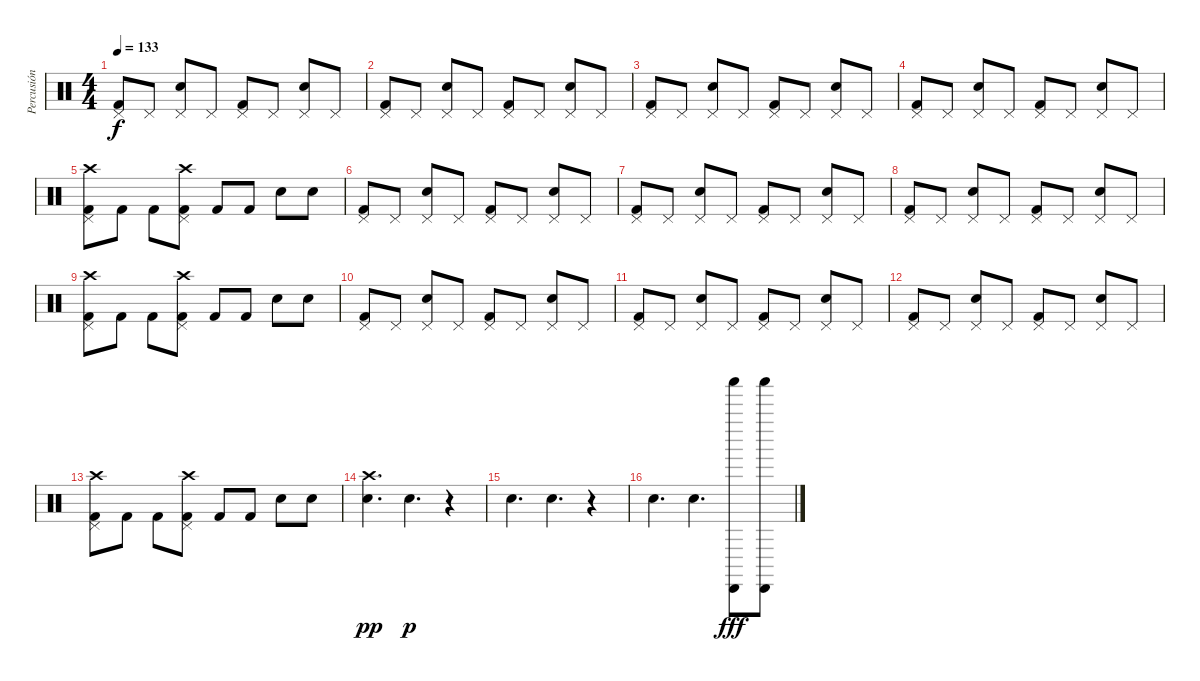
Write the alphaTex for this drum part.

\track ("Percusión" "Percusión") {instrument percussion}
\staff {score}
\articulation defaults
\ts (4 4)
\tempo 133
\clef neutral
\ks c
("Pedal Hi-Hat (hit)" "Kick (hit) 2").8{dy f} "Pedal Hi-Hat (hit)".8 ("Electric Snare (hit)" "Pedal Hi-Hat (hit)").8 "Pedal Hi-Hat (hit)".8 ("Pedal Hi-Hat (hit)" "Kick (hit) 2").8 "Pedal Hi-Hat (hit)".8 ("Electric Snare (hit)" "Pedal Hi-Hat (hit)").8 "Pedal Hi-Hat (hit)".8 |
("Pedal Hi-Hat (hit)" "Kick (hit) 2").8 "Pedal Hi-Hat (hit)".8 ("Electric Snare (hit)" "Pedal Hi-Hat (hit)").8 "Pedal Hi-Hat (hit)".8 ("Pedal Hi-Hat (hit)" "Kick (hit) 2").8 "Pedal Hi-Hat (hit)".8 ("Electric Snare (hit)" "Pedal Hi-Hat (hit)").8 "Pedal Hi-Hat (hit)".8 |
("Pedal Hi-Hat (hit)" "Kick (hit) 2").8 "Pedal Hi-Hat (hit)".8 ("Electric Snare (hit)" "Pedal Hi-Hat (hit)").8 "Pedal Hi-Hat (hit)".8 ("Pedal Hi-Hat (hit)" "Kick (hit) 2").8 "Pedal Hi-Hat (hit)".8 ("Electric Snare (hit)" "Pedal Hi-Hat (hit)").8 "Pedal Hi-Hat (hit)".8 |
("Pedal Hi-Hat (hit)" "Kick (hit) 2").8 "Pedal Hi-Hat (hit)".8 ("Electric Snare (hit)" "Pedal Hi-Hat (hit)").8 "Pedal Hi-Hat (hit)".8 ("Pedal Hi-Hat (hit)" "Kick (hit) 2").8 "Pedal Hi-Hat (hit)".8 ("Electric Snare (hit)" "Pedal Hi-Hat (hit)").8 "Pedal Hi-Hat (hit)".8 |
("Crash high (hit)" "Pedal Hi-Hat (hit)" "Kick (hit) 2").8 "Kick (hit) 2".8 "Kick (hit) 2".8 ("Crash high (hit)" "Pedal Hi-Hat (hit)" "Kick (hit) 2").8 "Kick (hit) 2".8 "Kick (hit) 2".8 "Electric Snare (hit)".8 "Electric Snare (hit)".8 |
("Pedal Hi-Hat (hit)" "Kick (hit) 2").8 "Pedal Hi-Hat (hit)".8 ("Electric Snare (hit)" "Pedal Hi-Hat (hit)").8 "Pedal Hi-Hat (hit)".8 ("Pedal Hi-Hat (hit)" "Kick (hit) 2").8 "Pedal Hi-Hat (hit)".8 ("Electric Snare (hit)" "Pedal Hi-Hat (hit)").8 "Pedal Hi-Hat (hit)".8 |
("Pedal Hi-Hat (hit)" "Kick (hit) 2").8 "Pedal Hi-Hat (hit)".8 ("Electric Snare (hit)" "Pedal Hi-Hat (hit)").8 "Pedal Hi-Hat (hit)".8 ("Pedal Hi-Hat (hit)" "Kick (hit) 2").8 "Pedal Hi-Hat (hit)".8 ("Electric Snare (hit)" "Pedal Hi-Hat (hit)").8 "Pedal Hi-Hat (hit)".8 |
("Pedal Hi-Hat (hit)" "Kick (hit) 2").8 "Pedal Hi-Hat (hit)".8 ("Electric Snare (hit)" "Pedal Hi-Hat (hit)").8 "Pedal Hi-Hat (hit)".8 ("Pedal Hi-Hat (hit)" "Kick (hit) 2").8 "Pedal Hi-Hat (hit)".8 ("Electric Snare (hit)" "Pedal Hi-Hat (hit)").8 "Pedal Hi-Hat (hit)".8 |
("Crash high (hit)" "Pedal Hi-Hat (hit)" "Kick (hit) 2").8 "Kick (hit) 2".8 "Kick (hit) 2".8 ("Crash high (hit)" "Pedal Hi-Hat (hit)" "Kick (hit) 2").8 "Kick (hit) 2".8 "Kick (hit) 2".8 "Electric Snare (hit)".8 "Electric Snare (hit)".8 |
("Pedal Hi-Hat (hit)" "Kick (hit) 2").8 "Pedal Hi-Hat (hit)".8 ("Electric Snare (hit)" "Pedal Hi-Hat (hit)").8 "Pedal Hi-Hat (hit)".8 ("Pedal Hi-Hat (hit)" "Kick (hit) 2").8 "Pedal Hi-Hat (hit)".8 ("Electric Snare (hit)" "Pedal Hi-Hat (hit)").8 "Pedal Hi-Hat (hit)".8 |
("Pedal Hi-Hat (hit)" "Kick (hit) 2").8 "Pedal Hi-Hat (hit)".8 ("Electric Snare (hit)" "Pedal Hi-Hat (hit)").8 "Pedal Hi-Hat (hit)".8 ("Pedal Hi-Hat (hit)" "Kick (hit) 2").8 "Pedal Hi-Hat (hit)".8 ("Electric Snare (hit)" "Pedal Hi-Hat (hit)").8 "Pedal Hi-Hat (hit)".8 |
("Pedal Hi-Hat (hit)" "Kick (hit) 2").8 "Pedal Hi-Hat (hit)".8 ("Electric Snare (hit)" "Pedal Hi-Hat (hit)").8 "Pedal Hi-Hat (hit)".8 ("Pedal Hi-Hat (hit)" "Kick (hit) 2").8 "Pedal Hi-Hat (hit)".8 ("Electric Snare (hit)" "Pedal Hi-Hat (hit)").8 "Pedal Hi-Hat (hit)".8 |
("Crash high (hit)" "Pedal Hi-Hat (hit)" "Kick (hit) 2").8 "Kick (hit) 2".8 "Kick (hit) 2".8 ("Crash high (hit)" "Pedal Hi-Hat (hit)" "Kick (hit) 2").8 "Kick (hit) 2".8 "Kick (hit) 2".8 "Electric Snare (hit)".8 "Electric Snare (hit)".8 |
("Crash high (hit)" "Snare (hit) 2").4{d dy pp} "Snare (hit) 2".4{d dy p} r.4 |
"Snare (hit) 2".4{d} "Snare (hit) 2".4{d} r.4 |
"Snare (hit) 2".4{d} "Snare (hit) 2".4{d} ("Shaker (hit)" "Cabasa (hit)").8{dy fff} ("Cabasa (hit)" "Shaker (hit)").8
